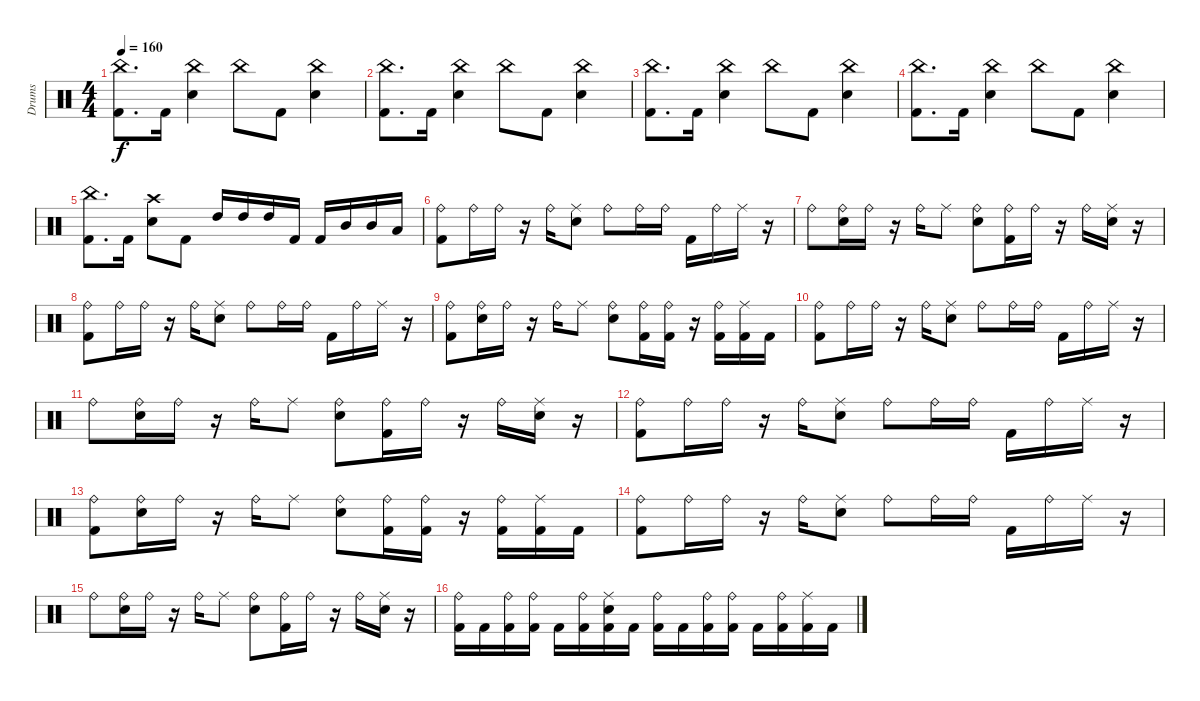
\track ("Drums" "Drums") {instrument percussion}
\staff {score}
\articulation defaults
\ts (4 4)
\tempo 160
\clef neutral
\ks c
("China (hit)" "Kick (hit) 2").8{d dy f} "Kick (hit) 2".16 ("China (hit)" "Snare (hit) 2").4 "China (hit)".8 "Kick (hit) 2".8 ("China (hit)" "Snare (hit) 2").4 |
("China (hit)" "Kick (hit) 2").8{d} "Kick (hit) 2".16 ("China (hit)" "Snare (hit) 2").4 "China (hit)".8 "Kick (hit) 2".8 ("China (hit)" "Snare (hit) 2").4 |
("China (hit)" "Kick (hit) 2").8{d} "Kick (hit) 2".16 ("China (hit)" "Snare (hit) 2").4 "China (hit)".8 "Kick (hit) 2".8 ("China (hit)" "Snare (hit) 2").4 |
("China (hit)" "Kick (hit) 2").8{d} "Kick (hit) 2".16 ("China (hit)" "Snare (hit) 2").4 "China (hit)".8 "Kick (hit) 2".8 ("China (hit)" "Snare (hit) 2").4 |
("China (hit)" "Kick (hit) 2").8{d} "Kick (hit) 2".16 ("Crash high (hit)" "Snare (hit) 2").8 "Kick (hit) 2".8 "High Tom (hit)".16 "High Tom (hit)".16 "High Tom (hit)".16 "Kick (hit) 2".16 "Kick (hit) 2".16 "Mid Tom (hit)".16 "Mid Tom (hit)".16 "Low Tom (hit)".16 |
("Ride (bell)" "Kick (hit) 2").8 "Ride (bell)".16 "Ride (bell)".16 r.16 "Ride (bell)".16 ("Ride (middle)" "Snare (hit) 2").8 "Ride (bell)".8 "Ride (bell)".16 "Ride (bell)".16 "Kick (hit) 2".16 "Ride (bell)".16 "Ride (middle)".16 r.16 |
"Ride (bell)".8 ("Ride (bell)" "Snare (hit) 2").16 "Ride (bell)".16 r.16 "Ride (bell)".16 "Ride (middle)".8 ("Ride (bell)" "Snare (hit) 2").8 ("Ride (bell)" "Kick (hit) 2").16 "Ride (bell)".16 r.16 "Ride (bell)".16 ("Ride (middle)" "Snare (hit) 2").16 r.16 |
("Ride (bell)" "Kick (hit) 2").8 "Ride (bell)".16 "Ride (bell)".16 r.16 "Ride (bell)".16 ("Ride (middle)" "Snare (hit) 2").8 "Ride (bell)".8 "Ride (bell)".16 "Ride (bell)".16 "Kick (hit) 2".16 "Ride (bell)".16 "Ride (middle)".16 r.16 |
("Ride (bell)" "Kick (hit) 2").8 ("Ride (bell)" "Snare (hit) 2").16 "Ride (bell)".16 r.16 "Ride (bell)".16 "Ride (middle)".8 ("Ride (bell)" "Snare (hit) 2").8 ("Ride (bell)" "Kick (hit) 2").16 ("Ride (bell)" "Kick (hit) 2").16 r.16 ("Ride (bell)" "Kick (hit) 2").16 ("Ride (middle)" "Kick (hit) 2").16 "Kick (hit) 2".16 |
("Ride (bell)" "Kick (hit) 2").8 "Ride (bell)".16 "Ride (bell)".16 r.16 "Ride (bell)".16 ("Ride (middle)" "Snare (hit) 2").8 "Ride (bell)".8 "Ride (bell)".16 "Ride (bell)".16 "Kick (hit) 2".16 "Ride (bell)".16 "Ride (middle)".16 r.16 |
"Ride (bell)".8 ("Ride (bell)" "Snare (hit) 2").16 "Ride (bell)".16 r.16 "Ride (bell)".16 "Ride (middle)".8 ("Ride (bell)" "Snare (hit) 2").8 ("Ride (bell)" "Kick (hit) 2").16 "Ride (bell)".16 r.16 "Ride (bell)".16 ("Ride (middle)" "Snare (hit) 2").16 r.16 |
("Ride (bell)" "Kick (hit) 2").8 "Ride (bell)".16 "Ride (bell)".16 r.16 "Ride (bell)".16 ("Ride (middle)" "Snare (hit) 2").8 "Ride (bell)".8 "Ride (bell)".16 "Ride (bell)".16 "Kick (hit) 2".16 "Ride (bell)".16 "Ride (middle)".16 r.16 |
("Ride (bell)" "Kick (hit) 2").8 ("Ride (bell)" "Snare (hit) 2").16 "Ride (bell)".16 r.16 "Ride (bell)".16 "Ride (middle)".8 ("Ride (bell)" "Snare (hit) 2").8 ("Ride (bell)" "Kick (hit) 2").16 ("Ride (bell)" "Kick (hit) 2").16 r.16 ("Ride (bell)" "Kick (hit) 2").16 ("Ride (middle)" "Kick (hit) 2").16 "Kick (hit) 2".16 |
("Ride (bell)" "Kick (hit) 2").8 "Ride (bell)".16 "Ride (bell)".16 r.16 "Ride (bell)".16 ("Ride (middle)" "Snare (hit) 2").8 "Ride (bell)".8 "Ride (bell)".16 "Ride (bell)".16 "Kick (hit) 2".16 "Ride (bell)".16 "Ride (middle)".16 r.16 |
"Ride (bell)".8 ("Ride (bell)" "Snare (hit) 2").16 "Ride (bell)".16 r.16 "Ride (bell)".16 "Ride (middle)".8 ("Ride (bell)" "Snare (hit) 2").8 ("Ride (bell)" "Kick (hit) 2").16 "Ride (bell)".16 r.16 "Ride (bell)".16 ("Ride (middle)" "Snare (hit) 2").16 r.16 |
("Ride (bell)" "Kick (hit) 2").16 "Kick (hit) 2".16 ("Ride (bell)" "Kick (hit) 2").16 ("Ride (bell)" "Kick (hit) 2").16 "Kick (hit) 2".16 ("Ride (bell)" "Kick (hit) 2").16 ("Ride (middle)" "Snare (hit) 2" "Kick (hit) 2").16 "Kick (hit) 2".16 ("Ride (bell)" "Kick (hit) 2").16 "Kick (hit) 2".16 ("Ride (bell)" "Kick (hit) 2").16 ("Ride (bell)" "Kick (hit) 2").16 "Kick (hit) 2".16 ("Ride (bell)" "Kick (hit) 2").16 ("Ride (middle)" "Kick (hit) 2").16 "Kick (hit) 2".16
